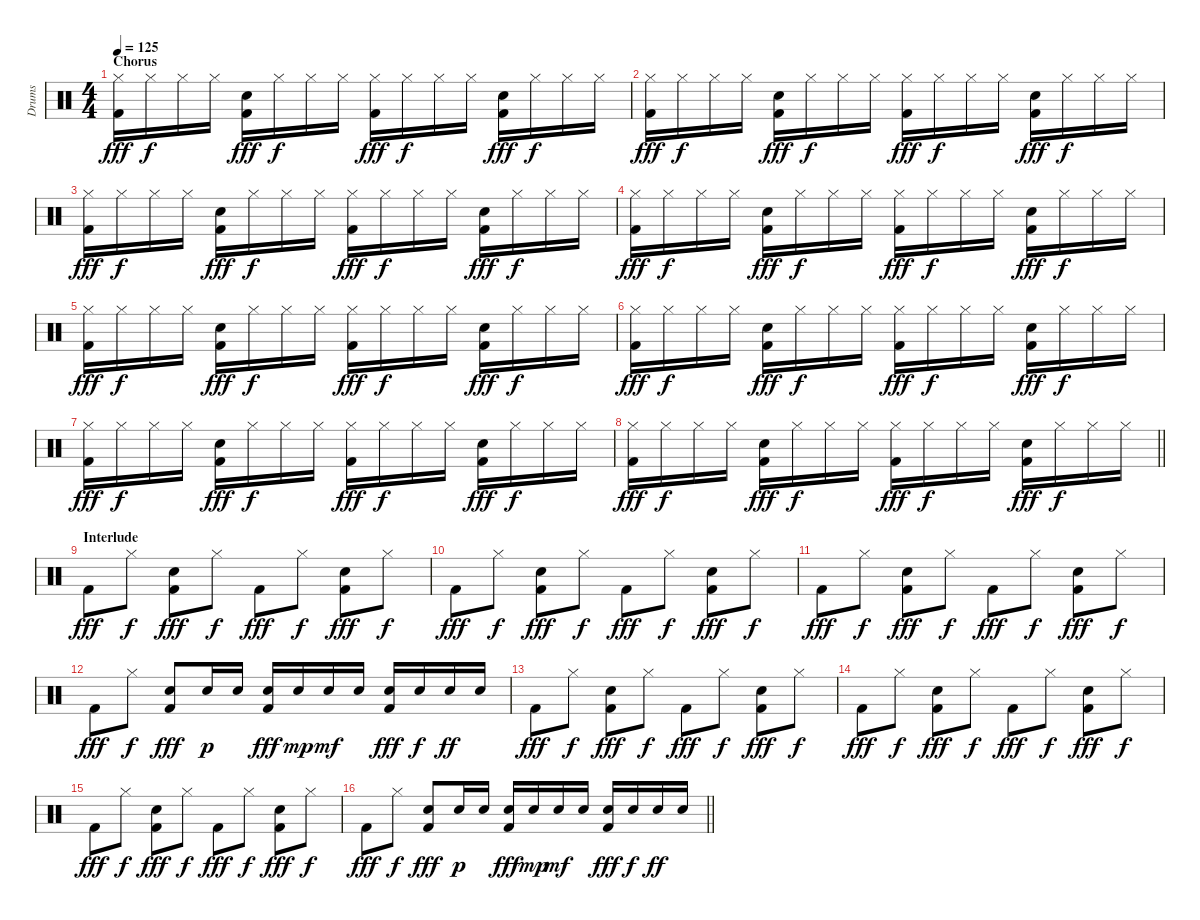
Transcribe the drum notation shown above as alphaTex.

\track ("Drums" "Drums") {instrument percussion}
\staff {score}
\articulation defaults
\ts (4 4)
\section ("" "Chorus")
\tempo 125
\clef neutral
\ks c
("Hi-Hat (closed)" "Kick (hit) 2").16{dy fff} "Hi-Hat (closed)".16{dy f} "Hi-Hat (closed)".16 "Hi-Hat (closed)".16 ("Snare (hit) 2" "Kick (hit) 2").16{dy fff} "Hi-Hat (closed)".16{dy f} "Hi-Hat (closed)".16 "Hi-Hat (closed)".16 ("Hi-Hat (closed)" "Kick (hit) 2").16{dy fff} "Hi-Hat (closed)".16{dy f} "Hi-Hat (closed)".16 "Hi-Hat (closed)".16 ("Snare (hit) 2" "Kick (hit) 2").16{dy fff} "Hi-Hat (closed)".16{dy f} "Hi-Hat (closed)".16 "Hi-Hat (closed)".16 |
("Hi-Hat (closed)" "Kick (hit) 2").16{dy fff} "Hi-Hat (closed)".16{dy f} "Hi-Hat (closed)".16 "Hi-Hat (closed)".16 ("Snare (hit) 2" "Kick (hit) 2").16{dy fff} "Hi-Hat (closed)".16{dy f} "Hi-Hat (closed)".16 "Hi-Hat (closed)".16 ("Hi-Hat (closed)" "Kick (hit) 2").16{dy fff} "Hi-Hat (closed)".16{dy f} "Hi-Hat (closed)".16 "Hi-Hat (closed)".16 ("Snare (hit) 2" "Kick (hit) 2").16{dy fff} "Hi-Hat (closed)".16{dy f} "Hi-Hat (closed)".16 "Hi-Hat (closed)".16 |
("Hi-Hat (closed)" "Kick (hit) 2").16{dy fff} "Hi-Hat (closed)".16{dy f} "Hi-Hat (closed)".16 "Hi-Hat (closed)".16 ("Snare (hit) 2" "Kick (hit) 2").16{dy fff} "Hi-Hat (closed)".16{dy f} "Hi-Hat (closed)".16 "Hi-Hat (closed)".16 ("Hi-Hat (closed)" "Kick (hit) 2").16{dy fff} "Hi-Hat (closed)".16{dy f} "Hi-Hat (closed)".16 "Hi-Hat (closed)".16 ("Snare (hit) 2" "Kick (hit) 2").16{dy fff} "Hi-Hat (closed)".16{dy f} "Hi-Hat (closed)".16 "Hi-Hat (closed)".16 |
("Hi-Hat (closed)" "Kick (hit) 2").16{dy fff} "Hi-Hat (closed)".16{dy f} "Hi-Hat (closed)".16 "Hi-Hat (closed)".16 ("Snare (hit) 2" "Kick (hit) 2").16{dy fff} "Hi-Hat (closed)".16{dy f} "Hi-Hat (closed)".16 "Hi-Hat (closed)".16 ("Hi-Hat (closed)" "Kick (hit) 2").16{dy fff} "Hi-Hat (closed)".16{dy f} "Hi-Hat (closed)".16 "Hi-Hat (closed)".16 ("Snare (hit) 2" "Kick (hit) 2").16{dy fff} "Hi-Hat (closed)".16{dy f} "Hi-Hat (closed)".16 "Hi-Hat (closed)".16 |
("Hi-Hat (closed)" "Kick (hit) 2").16{dy fff} "Hi-Hat (closed)".16{dy f} "Hi-Hat (closed)".16 "Hi-Hat (closed)".16 ("Snare (hit) 2" "Kick (hit) 2").16{dy fff} "Hi-Hat (closed)".16{dy f} "Hi-Hat (closed)".16 "Hi-Hat (closed)".16 ("Hi-Hat (closed)" "Kick (hit) 2").16{dy fff} "Hi-Hat (closed)".16{dy f} "Hi-Hat (closed)".16 "Hi-Hat (closed)".16 ("Snare (hit) 2" "Kick (hit) 2").16{dy fff} "Hi-Hat (closed)".16{dy f} "Hi-Hat (closed)".16 "Hi-Hat (closed)".16 |
("Hi-Hat (closed)" "Kick (hit) 2").16{dy fff} "Hi-Hat (closed)".16{dy f} "Hi-Hat (closed)".16 "Hi-Hat (closed)".16 ("Snare (hit) 2" "Kick (hit) 2").16{dy fff} "Hi-Hat (closed)".16{dy f} "Hi-Hat (closed)".16 "Hi-Hat (closed)".16 ("Hi-Hat (closed)" "Kick (hit) 2").16{dy fff} "Hi-Hat (closed)".16{dy f} "Hi-Hat (closed)".16 "Hi-Hat (closed)".16 ("Snare (hit) 2" "Kick (hit) 2").16{dy fff} "Hi-Hat (closed)".16{dy f} "Hi-Hat (closed)".16 "Hi-Hat (closed)".16 |
("Hi-Hat (closed)" "Kick (hit) 2").16{dy fff} "Hi-Hat (closed)".16{dy f} "Hi-Hat (closed)".16 "Hi-Hat (closed)".16 ("Snare (hit) 2" "Kick (hit) 2").16{dy fff} "Hi-Hat (closed)".16{dy f} "Hi-Hat (closed)".16 "Hi-Hat (closed)".16 ("Hi-Hat (closed)" "Kick (hit) 2").16{dy fff} "Hi-Hat (closed)".16{dy f} "Hi-Hat (closed)".16 "Hi-Hat (closed)".16 ("Snare (hit) 2" "Kick (hit) 2").16{dy fff} "Hi-Hat (closed)".16{dy f} "Hi-Hat (closed)".16 "Hi-Hat (closed)".16 |
\barLineRight lightlight
("Hi-Hat (closed)" "Kick (hit) 2").16{dy fff} "Hi-Hat (closed)".16{dy f} "Hi-Hat (closed)".16 "Hi-Hat (closed)".16 ("Snare (hit) 2" "Kick (hit) 2").16{dy fff} "Hi-Hat (closed)".16{dy f} "Hi-Hat (closed)".16 "Hi-Hat (closed)".16 ("Hi-Hat (closed)" "Kick (hit) 2").16{dy fff} "Hi-Hat (closed)".16{dy f} "Hi-Hat (closed)".16 "Hi-Hat (closed)".16 ("Snare (hit) 2" "Kick (hit) 2").16{dy fff} "Hi-Hat (closed)".16{dy f} "Hi-Hat (closed)".16 "Hi-Hat (closed)".16 |
\section ("" "Interlude")
"Kick (hit) 2".8{dy fff} "Hi-Hat (closed)".8{dy f} ("Snare (hit) 2" "Kick (hit) 2").8{dy fff} "Hi-Hat (closed)".8{dy f} "Kick (hit) 2".8{dy fff} "Hi-Hat (closed)".8{dy f} ("Snare (hit) 2" "Kick (hit) 2").8{dy fff} "Hi-Hat (closed)".8{dy f} |
"Kick (hit) 2".8{dy fff} "Hi-Hat (closed)".8{dy f} ("Snare (hit) 2" "Kick (hit) 2").8{dy fff} "Hi-Hat (closed)".8{dy f} "Kick (hit) 2".8{dy fff} "Hi-Hat (closed)".8{dy f} ("Snare (hit) 2" "Kick (hit) 2").8{dy fff} "Hi-Hat (closed)".8{dy f} |
"Kick (hit) 2".8{dy fff} "Hi-Hat (closed)".8{dy f} ("Snare (hit) 2" "Kick (hit) 2").8{dy fff} "Hi-Hat (closed)".8{dy f} "Kick (hit) 2".8{dy fff} "Hi-Hat (closed)".8{dy f} ("Snare (hit) 2" "Kick (hit) 2").8{dy fff} "Hi-Hat (closed)".8{dy f} |
"Kick (hit) 2".8{dy fff} "Hi-Hat (closed)".8{dy f} ("Snare (hit) 2" "Kick (hit) 2").8{dy fff} "Snare (hit) 2".16{dy p} "Snare (hit) 2".16 ("Snare (hit) 2" "Kick (hit) 2").16{dy fff} "Snare (hit) 2".16{dy mp} "Snare (hit) 2".16{dy mf} "Snare (hit) 2".16 ("Snare (hit) 2" "Kick (hit) 2").16{dy fff} "Snare (hit) 2".16{dy f} "Snare (hit) 2".16{dy ff} "Snare (hit) 2".16 |
"Kick (hit) 2".8{dy fff} "Hi-Hat (closed)".8{dy f} ("Snare (hit) 2" "Kick (hit) 2").8{dy fff} "Hi-Hat (closed)".8{dy f} "Kick (hit) 2".8{dy fff} "Hi-Hat (closed)".8{dy f} ("Snare (hit) 2" "Kick (hit) 2").8{dy fff} "Hi-Hat (closed)".8{dy f} |
"Kick (hit) 2".8{dy fff} "Hi-Hat (closed)".8{dy f} ("Snare (hit) 2" "Kick (hit) 2").8{dy fff} "Hi-Hat (closed)".8{dy f} "Kick (hit) 2".8{dy fff} "Hi-Hat (closed)".8{dy f} ("Snare (hit) 2" "Kick (hit) 2").8{dy fff} "Hi-Hat (closed)".8{dy f} |
"Kick (hit) 2".8{dy fff} "Hi-Hat (closed)".8{dy f} ("Snare (hit) 2" "Kick (hit) 2").8{dy fff} "Hi-Hat (closed)".8{dy f} "Kick (hit) 2".8{dy fff} "Hi-Hat (closed)".8{dy f} ("Snare (hit) 2" "Kick (hit) 2").8{dy fff} "Hi-Hat (closed)".8{dy f} |
\barLineRight lightlight "Kick (hit) 2".8{dy fff} "Hi-Hat (closed)".8{dy f}
("Snare (hit) 2" "Kick (hit) 2").8{dy fff} "Snare (hit) 2".16{dy p} "Snare (hit) 2".16 ("Snare (hit) 2" "Kick (hit) 2").16{dy fff} "Snare (hit) 2".16{dy mp} "Snare (hit) 2".16{dy mf} "Snare (hit) 2".16 ("Snare (hit) 2" "Kick (hit) 2").16{dy fff} "Snare (hit) 2".16{dy f} "Snare (hit) 2".16{dy ff} "Snare (hit) 2".16
